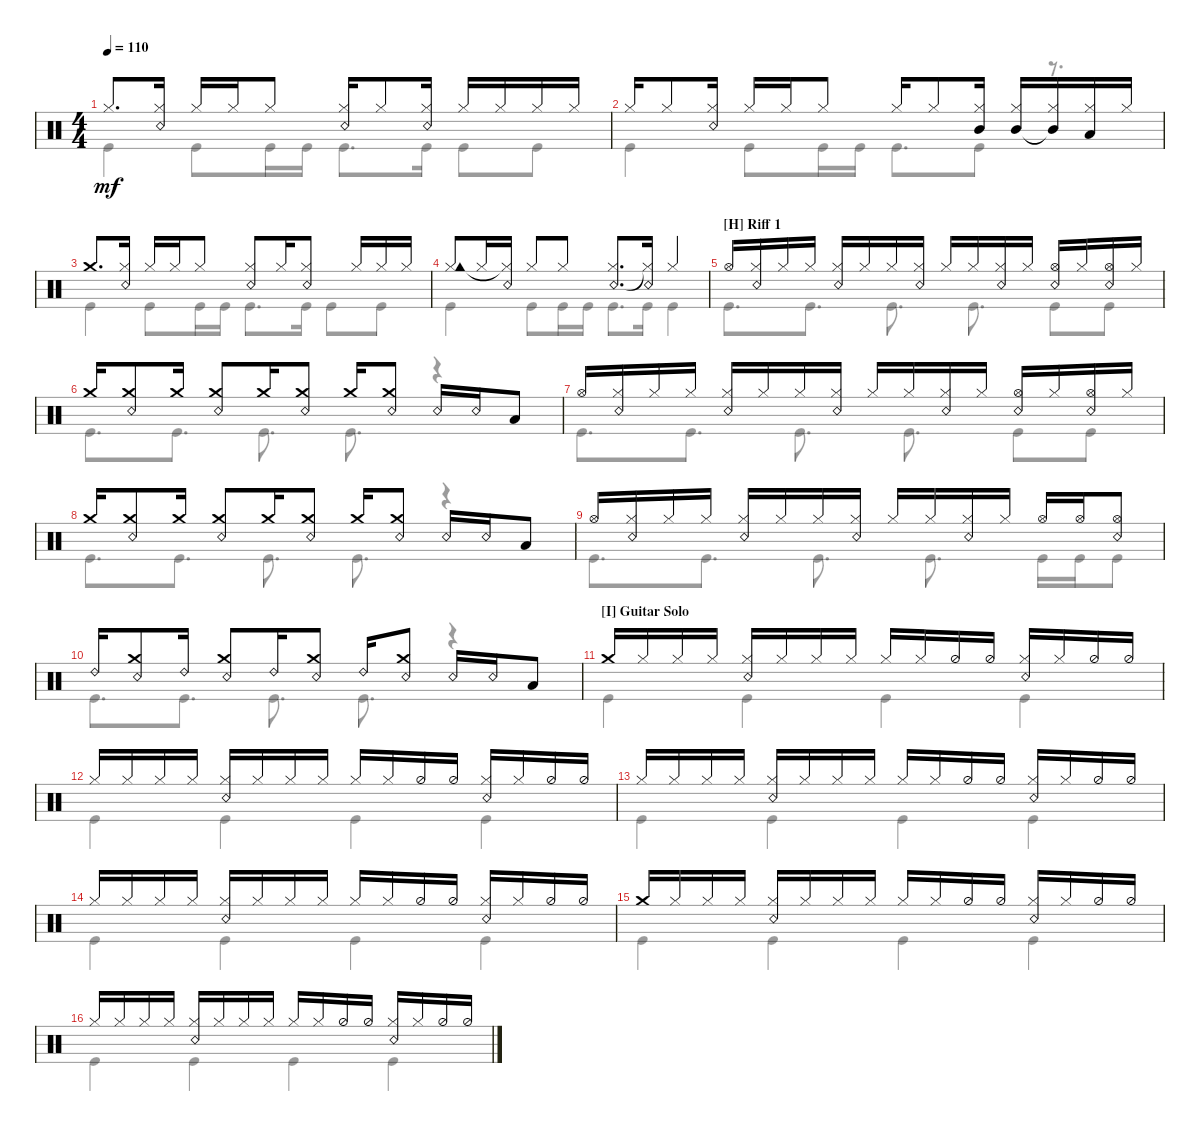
\defaultSystemsLayout 4
\bracketExtendMode groupsimilarinstruments
\singleTrackTrackNamePolicy hidden
\multiTrackTrackNamePolicy hidden
\firstSystemTrackNameOrientation horizontal
\otherSystemsTrackNameOrientation horizontal
\track ("Максим Удалов" "Drums") {instrument percussion}
\staff {score}
\articulation defaults
\voice
\ts (4 4)
\tempo 110
\clef neutral
\scale
1.02648
\ks c "Hi-Hat (closed)".8{d dy mf}
("Snare (rim shot)" "Hi-Hat (closed)").16 "Hi-Hat (closed)".16 "Hi-Hat (closed)".16 "Hi-Hat (closed)".8 ("Hi-Hat (closed)" "Snare (rim shot)").16 "Hi-Hat (closed)".8 ("Hi-Hat (closed)" "Snare (rim shot)").16 "Hi-Hat (closed)".16 "Hi-Hat (closed)".16 "Hi-Hat (closed)".16 "Hi-Hat (closed)".16 |
\scale
0.973518 "Hi-Hat (closed)".16 "Hi-Hat (closed)".8 ("Snare (rim shot)" "Hi-Hat (closed)").16 "Hi-Hat (closed)".16 "Hi-Hat (closed)".16 "Hi-Hat (closed)".8 "Hi-Hat (closed)".16 "Hi-Hat (closed)".8 ("Hi-Hat (closed)" "Mid Tom (hit)").16 ("Hi-Hat (closed)" "Mid Tom (hit)").16 ("Hi-Hat (closed)" "Mid Tom (hit)"{t}).16 ("Hi-Hat (closed)" "Low Tom (hit)").16 "Hi-Hat (closed)".16 |
\scale
1.02648 "Crash medium (hit)".8{d} ("Hi-Hat (closed)" "Snare (rim shot)").16 "Hi-Hat (closed)".16 "Hi-Hat (closed)".16 "Hi-Hat (closed)".8 ("Hi-Hat (closed)" "Snare (rim shot)").8 "Hi-Hat (closed)".16 ("Hi-Hat (closed)" "Snare (rim shot)").8 "Hi-Hat (closed)".16 "Hi-Hat (closed)".16 "Hi-Hat (closed)".16 |
\scale
0.973518 ("Hi-Hat (closed)" "Cowbell high (hit)").8 "Hi-Hat (closed)".16 ("Snare (rim shot)" "Hi-Hat (closed)"{t}).16 "Hi-Hat (closed)".8 "Hi-Hat (closed)".8 ("Hi-Hat (closed)" "Snare (rim shot)").8{d} ("Snare (rim shot)" "Hi-Hat (closed)"{t}).16 "Hi-Hat (closed)".4 |
\section ("H" "Riff 1")
\scale
1.02648 "Hi-Hat (open)".16 ("Hi-Hat (closed)" "Snare (rim shot)").16 "Hi-Hat (closed)".16 "Hi-Hat (closed)".16 ("Hi-Hat (closed)" "Snare (rim shot)").16 "Hi-Hat (closed)".16 "Hi-Hat (closed)".16 ("Hi-Hat (closed)" "Snare (rim shot)").16 "Hi-Hat (closed)".16 "Hi-Hat (closed)".16 ("Hi-Hat (closed)" "Snare (rim shot)").16 "Hi-Hat (closed)".16 ("Hi-Hat (open)" "Snare (rim shot)").16 "Hi-Hat (closed)".16 ("Hi-Hat (open)" "Snare (rim shot)").16 "Hi-Hat (closed)".16 |
\scale
0.973518 "Crash medium (hit)".16 ("Crash medium (hit)" "Snare (rim shot)").8 "Crash medium (hit)".16 ("Crash medium (hit)" "Snare (rim shot)").8 "Crash medium (hit)".16 ("Crash medium (hit)" "Snare (rim shot)").8 "Crash medium (hit)".16 ("Crash medium (hit)" "Snare (rim shot)").8 "Snare (rim shot)".16 "Snare (rim shot)".16 "Low Tom (hit)".8 |
\scale
1.02648 "Hi-Hat (open)".16 ("Hi-Hat (closed)" "Snare (rim shot)").16 "Hi-Hat (closed)".16 "Hi-Hat (closed)".16 ("Hi-Hat (closed)" "Snare (rim shot)").16 "Hi-Hat (closed)".16 "Hi-Hat (closed)".16 ("Hi-Hat (closed)" "Snare (rim shot)").16 "Hi-Hat (closed)".16 "Hi-Hat (closed)".16 ("Hi-Hat (closed)" "Snare (rim shot)").16 "Hi-Hat (closed)".16 ("Hi-Hat (open)" "Snare (rim shot)").16 "Hi-Hat (closed)".16 ("Hi-Hat (open)" "Snare (rim shot)").16 "Hi-Hat (closed)".16 |
\scale
0.973518 "Crash medium (hit)".16 ("Crash medium (hit)" "Snare (rim shot)").8 "Crash medium (hit)".16 ("Crash medium (hit)" "Snare (rim shot)").8 "Crash medium (hit)".16 ("Crash medium (hit)" "Snare (rim shot)").8 "Crash medium (hit)".16 ("Crash medium (hit)" "Snare (rim shot)").8 "Snare (rim shot)".16 "Snare (rim shot)".16 "Low Tom (hit)".8 |
\scale
1.02648 "Hi-Hat (open)".16 ("Hi-Hat (closed)" "Snare (rim shot)").16 "Hi-Hat (closed)".16 "Hi-Hat (closed)".16 ("Hi-Hat (closed)" "Snare (rim shot)").16 "Hi-Hat (closed)".16 "Hi-Hat (closed)".16 ("Hi-Hat (closed)" "Snare (rim shot)").16 "Hi-Hat (closed)".16 "Hi-Hat (closed)".16 ("Hi-Hat (closed)" "Snare (rim shot)").16 "Hi-Hat (closed)".16 "Hi-Hat (open)".16 "Hi-Hat (open)".16 ("Hi-Hat (open)" "Snare (rim shot)").8 |
\scale
0.973518 "Ride (bell) 2".16 ("Crash medium (hit)" "Snare (rim shot)").8 "Ride (bell) 2".16 ("Crash medium (hit)" "Snare (rim shot)").8 "Ride (bell) 2".16 ("Crash medium (hit)" "Snare (rim shot)").8 "Ride (bell) 2".16 ("Crash medium (hit)" "Snare (rim shot)").8 "Snare (rim shot)".16 "Snare (rim shot)".16 "Low Tom (hit)".8 |
\section ("I" "Guitar Solo")
\scale
1.02648 "Crash medium (hit)".16 "Hi-Hat (closed)".16 "Hi-Hat (closed)".16 "Hi-Hat (closed)".16 ("Hi-Hat (closed)" "Snare (rim shot)").16 "Hi-Hat (closed)".16 "Hi-Hat (closed)".16 "Hi-Hat (closed)".16 "Hi-Hat (closed)".16 "Hi-Hat (closed)".16 "Hi-Hat (half)".16 "Hi-Hat (half)".16 ("Hi-Hat (closed)" "Snare (rim shot)").16 "Hi-Hat (closed)".16 "Hi-Hat (half)".16 "Hi-Hat (half)".16 |
\scale
0.973518 "Hi-Hat (closed)".16 "Hi-Hat (closed)".16 "Hi-Hat (closed)".16 "Hi-Hat (closed)".16 ("Hi-Hat (closed)" "Snare (rim shot)").16 "Hi-Hat (closed)".16 "Hi-Hat (closed)".16 "Hi-Hat (closed)".16 "Hi-Hat (closed)".16 "Hi-Hat (closed)".16 "Hi-Hat (half)".16 "Hi-Hat (half)".16 ("Hi-Hat (closed)" "Snare (rim shot)").16 "Hi-Hat (closed)".16 "Hi-Hat (half)".16 "Hi-Hat (half)".16 |
\scale
1.02648 "Hi-Hat (closed)".16 "Hi-Hat (closed)".16 "Hi-Hat (closed)".16 "Hi-Hat (closed)".16 ("Hi-Hat (closed)" "Snare (rim shot)").16 "Hi-Hat (closed)".16 "Hi-Hat (closed)".16 "Hi-Hat (closed)".16 "Hi-Hat (closed)".16 "Hi-Hat (closed)".16 "Hi-Hat (half)".16 "Hi-Hat (half)".16 ("Hi-Hat (closed)" "Snare (rim shot)").16 "Hi-Hat (closed)".16 "Hi-Hat (half)".16 "Hi-Hat (half)".16 |
\scale
0.973518 "Hi-Hat (closed)".16 "Hi-Hat (closed)".16 "Hi-Hat (closed)".16 "Hi-Hat (closed)".16 ("Hi-Hat (closed)" "Snare (rim shot)").16 "Hi-Hat (closed)".16 "Hi-Hat (closed)".16 "Hi-Hat (closed)".16 "Hi-Hat (closed)".16 "Hi-Hat (closed)".16 "Hi-Hat (half)".16 "Hi-Hat (half)".16 ("Hi-Hat (closed)" "Snare (rim shot)").16 "Hi-Hat (closed)".16 "Hi-Hat (half)".16 "Hi-Hat (half)".16 |
\scale
1.02648 "Crash medium (hit)".16 "Hi-Hat (closed)".16 "Hi-Hat (closed)".16 "Hi-Hat (closed)".16 ("Hi-Hat (closed)" "Snare (rim shot)").16 "Hi-Hat (closed)".16 "Hi-Hat (closed)".16 "Hi-Hat (closed)".16 "Hi-Hat (closed)".16 "Hi-Hat (closed)".16 "Hi-Hat (half)".16 "Hi-Hat (half)".16 ("Hi-Hat (closed)" "Snare (rim shot)").16 "Hi-Hat (closed)".16 "Hi-Hat (half)".16 "Hi-Hat (half)".16 |
\scale
0.973518 "Hi-Hat (closed)".16 "Hi-Hat (closed)".16 "Hi-Hat (closed)".16 "Hi-Hat (closed)".16 ("Hi-Hat (closed)" "Snare (rim shot)").16 "Hi-Hat (closed)".16 "Hi-Hat (closed)".16 "Hi-Hat (closed)".16 "Hi-Hat (closed)".16 "Hi-Hat (closed)".16 "Hi-Hat (half)".16 "Hi-Hat (half)".16 ("Hi-Hat (closed)" "Snare (rim shot)").16 "Hi-Hat (closed)".16 "Hi-Hat (half)".16 "Hi-Hat (half)".16
\voice
\clef neutral
\ottava regular
\simile none
\scale
1.02648
\ks c "Kick (hit)".4{dy mf} "Kick (hit)".8 "Kick (hit)".16 "Kick (hit)".16 "Kick (hit)".8{d} "Kick (hit)".16 "Kick (hit)".8 "Kick (hit)".8
|
\scale
0.973518 "Kick (hit)".4 "Kick (hit)".8 "Kick (hit)".16 "Kick (hit)".16 "Kick (hit)".8{d} "Kick (hit)".8 r.8{d} |
\scale
1.02648 "Kick (hit)".4 "Kick (hit)".8 "Kick (hit)".16 "Kick (hit)".16 "Kick (hit)".8{d} "Kick (hit)".16 "Kick (hit)".8 "Kick (hit)".8 |
\scale
0.973518 "Kick (hit)".4 "Kick (hit)".8 "Kick (hit)".16 "Kick (hit)".16 "Kick (hit)".8{d} "Kick (hit)".16 "Kick (hit)".4 |
\scale
1.02648 "Kick (hit)".8{d} "Kick (hit)".8{d} "Kick (hit)".8{d} "Kick (hit)".8{d} "Kick (hit)".8 "Kick (hit)".8 |
\scale
0.973518 "Kick (hit)".8{d} "Kick (hit)".8{d} "Kick (hit)".8{d} "Kick (hit)".8{d} r.4 |
\scale
1.02648 "Kick (hit)".8{d} "Kick (hit)".8{d} "Kick (hit)".8{d} "Kick (hit)".8{d} "Kick (hit)".8 "Kick (hit)".8 |
\scale
0.973518 "Kick (hit)".8{d} "Kick (hit)".8{d} "Kick (hit)".8{d} "Kick (hit)".8{d} r.4 |
\scale
1.02648 "Kick (hit)".8{d} "Kick (hit)".8{d} "Kick (hit)".8{d} "Kick (hit)".8{d} "Kick (hit)".16 "Kick (hit)".16 "Kick (hit)".8 |
\scale
0.973518 "Kick (hit)".8{d} "Kick (hit)".8{d} "Kick (hit)".8{d} "Kick (hit)".8{d} r.4 |
\scale
1.02648 "Kick (hit)".4 "Kick (hit)".4 "Kick (hit)".4 "Kick (hit)".4 |
\scale
0.973518 "Kick (hit)".4 "Kick (hit)".4 "Kick (hit)".4 "Kick (hit)".4 |
\scale
1.02648 "Kick (hit)".4 "Kick (hit)".4 "Kick (hit)".4 "Kick (hit)".4 |
\scale
0.973518 "Kick (hit)".4 "Kick (hit)".4 "Kick (hit)".4 "Kick (hit)".4 |
\scale
1.02648 "Kick (hit)".4 "Kick (hit)".4 "Kick (hit)".4 "Kick (hit)".4 |
\scale
0.973518 "Kick (hit)".4 "Kick (hit)".4 "Kick (hit)".4 "Kick (hit)".4
